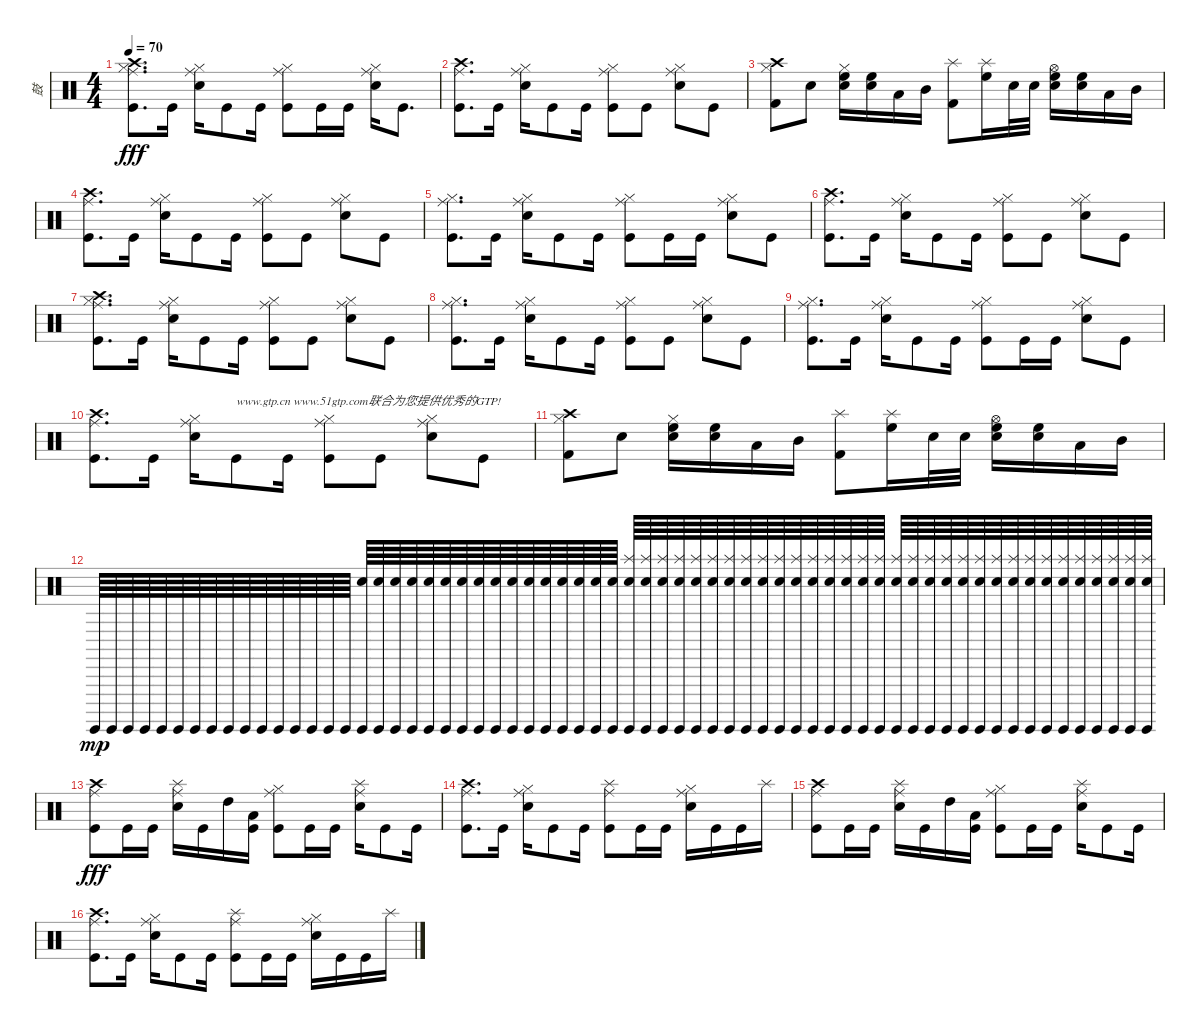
\track ("鼓" "鼓") {instrument percussion}
\staff {score}
\articulation defaults
\ts (4 4)
\tempo 70
\clef neutral
\ks c
("Ride (middle)" "Crash high (hit)" "Hi-Hat (closed)" "Kick (hit)").8{d dy fff} "Kick (hit)".16 ("Ride (middle)" "Hi-Hat (closed)" "Electric Snare (hit)").16 "Kick (hit)".8 "Kick (hit)".16 ("Ride (middle)" "Hi-Hat (closed)" "Kick (hit)").8 "Kick (hit)".16 "Kick (hit)".16 ("Ride (middle)" "Hi-Hat (closed)" "Electric Snare (hit)").16 "Kick (hit)".8{d} |
("Ride (middle)" "Crash high (hit)" "Kick (hit)").8{d} "Kick (hit)".16 ("Ride (middle)" "Hi-Hat (closed)" "Electric Snare (hit)").16 "Kick (hit)".8 "Kick (hit)".16 ("Ride (middle)" "Hi-Hat (closed)" "Kick (hit)").8 "Kick (hit)".8 ("Ride (middle)" "Hi-Hat (closed)" "Electric Snare (hit)").8 "Kick (hit)".8 |
("Crash high (hit)" "Hi-Hat (closed)" "Kick (hit) 2").8 "Snare (hit) 2".8 ("Hi-Hat (closed)" "High Floor Tom (hit)" "Electric Snare (hit)").16 ("High Floor Tom (hit)" "Electric Snare (hit)").16 "Low Tom (hit)".16 "Mid Tom (hit)".16 ("Splash (hit)" "Kick (hit) 2").8 ("Splash (hit)" "High Floor Tom (hit)").16 "Snare (hit) 2".32 "Snare (hit) 2".32 ("Hi-Hat (open)" "High Floor Tom (hit)" "Electric Snare (hit)").16 ("High Floor Tom (hit)" "Electric Snare (hit)").16 "Low Tom (hit)".16 "Mid Tom (hit)".16 |
("Ride (middle)" "Crash high (hit)" "Kick (hit)").8{d} "Kick (hit)".16 ("Ride (middle)" "Hi-Hat (closed)" "Electric Snare (hit)").16 "Kick (hit)".8 "Kick (hit)".16 ("Ride (middle)" "Hi-Hat (closed)" "Kick (hit)").8 "Kick (hit)".8 ("Ride (middle)" "Hi-Hat (closed)" "Electric Snare (hit)").8 "Kick (hit)".8 |
("Ride (middle)" "Hi-Hat (closed)" "Kick (hit)").8{d} "Kick (hit)".16 ("Ride (middle)" "Hi-Hat (closed)" "Electric Snare (hit)").16 "Kick (hit)".8 "Kick (hit)".16 ("Ride (middle)" "Hi-Hat (closed)" "Kick (hit)").8 "Kick (hit)".16 "Kick (hit)".16 ("Ride (middle)" "Hi-Hat (closed)" "Electric Snare (hit)").8 "Kick (hit)".8 |
("Ride (middle)" "Crash high (hit)" "Kick (hit)").8{d} "Kick (hit)".16 ("Ride (middle)" "Hi-Hat (closed)" "Electric Snare (hit)").16 "Kick (hit)".8 "Kick (hit)".16 ("Ride (middle)" "Hi-Hat (closed)" "Kick (hit)").8 "Kick (hit)".8 ("Ride (middle)" "Hi-Hat (closed)" "Electric Snare (hit)").8 "Kick (hit)".8 |
("Ride (middle)" "Crash high (hit)" "Hi-Hat (closed)" "Kick (hit)").8{d} "Kick (hit)".16 ("Ride (middle)" "Hi-Hat (closed)" "Electric Snare (hit)").16 "Kick (hit)".8 "Kick (hit)".16 ("Ride (middle)" "Hi-Hat (closed)" "Kick (hit)").8 "Kick (hit)".8 ("Ride (middle)" "Hi-Hat (closed)" "Electric Snare (hit)").8 "Kick (hit)".8 |
("Ride (middle)" "Hi-Hat (closed)" "Kick (hit)").8{d} "Kick (hit)".16 ("Ride (middle)" "Hi-Hat (closed)" "Electric Snare (hit)").16 "Kick (hit)".8 "Kick (hit)".16 ("Ride (middle)" "Hi-Hat (closed)" "Kick (hit)").8 "Kick (hit)".8 ("Ride (middle)" "Hi-Hat (closed)" "Electric Snare (hit)").8 "Kick (hit)".8 |
("Ride (middle)" "Hi-Hat (closed)" "Kick (hit)").8{d} "Kick (hit)".16 ("Ride (middle)" "Hi-Hat (closed)" "Electric Snare (hit)").16 "Kick (hit)".8 "Kick (hit)".16 ("Ride (middle)" "Hi-Hat (closed)" "Kick (hit)").8 "Kick (hit)".16 "Kick (hit)".16 ("Ride (middle)" "Hi-Hat (closed)" "Electric Snare (hit)").8 "Kick (hit)".8 |
("Ride (middle)" "Crash high (hit)" "Kick (hit)").8{d} "Kick (hit)".16 ("Ride (middle)" "Hi-Hat (closed)" "Electric Snare (hit)").16 "Kick (hit)".8{txt "www.gtp.cn www.51gtp.com联合为您提供优秀的GTP!"} "Kick (hit)".16 ("Ride (middle)" "Hi-Hat (closed)" "Kick (hit)").8 "Kick (hit)".8 ("Ride (middle)" "Hi-Hat (closed)" "Electric Snare (hit)").8 "Kick (hit)".8 |
("Crash high (hit)" "Hi-Hat (closed)" "Kick (hit) 2").8 "Snare (hit) 2".8 ("Hi-Hat (closed)" "High Floor Tom (hit)" "Electric Snare (hit)").16 ("High Floor Tom (hit)" "Electric Snare (hit)").16 "Low Tom (hit)".16 "Mid Tom (hit)".16 ("Splash (hit)" "Kick (hit) 2").8 ("Splash (hit)" "High Floor Tom (hit)").16 "Snare (hit) 2".32 "Snare (hit) 2".32 ("Hi-Hat (open)" "High Floor Tom (hit)" "Electric Snare (hit)").16 ("High Floor Tom (hit)" "Electric Snare (hit)").16 "Low Tom (hit)".16 "Mid Tom (hit)".16 |
"Surdo (hit)".64{dy mp} "Surdo (hit)".64 "Surdo (hit)".64 "Surdo (hit)".64 "Surdo (hit)".64 "Surdo (hit)".64 "Surdo (hit)".64 "Surdo (hit)".64 "Surdo (hit)".64 "Surdo (hit)".64 "Surdo (hit)".64 "Surdo (hit)".64 "Surdo (hit)".64 "Surdo (hit)".64 "Surdo (hit)".64 "Surdo (hit)".64 ("Surdo (hit)" "Electric Snare (hit)").64 ("Surdo (hit)" "Electric Snare (hit)").64 ("Surdo (hit)" "Electric Snare (hit)").64 ("Surdo (hit)" "Electric Snare (hit)").64 ("Surdo (hit)" "Electric Snare (hit)").64 ("Surdo (hit)" "Electric Snare (hit)").64 ("Surdo (hit)" "Electric Snare (hit)").64 ("Surdo (hit)" "Electric Snare (hit)").64 ("Surdo (hit)" "Electric Snare (hit)").64 ("Surdo (hit)" "Electric Snare (hit)").64 ("Surdo (hit)" "Electric Snare (hit)").64 ("Surdo (hit)" "Electric Snare (hit)").64 ("Surdo (hit)" "Electric Snare (hit)").64 ("Surdo (hit)" "Electric Snare (hit)").64 ("Surdo (hit)" "Electric Snare (hit)").64 ("Surdo (hit)" "Electric Snare (hit)").64 ("Surdo (hit)" "Electric Snare (hit)" "Splash (hit)").64 ("Surdo (hit)" "Electric Snare (hit)" "Splash (hit)").64 ("Surdo (hit)" "Electric Snare (hit)" "Splash (hit)").64 ("Surdo (hit)" "Electric Snare (hit)" "Splash (hit)").64 ("Surdo (hit)" "Electric Snare (hit)" "Splash (hit)").64 ("Surdo (hit)" "Electric Snare (hit)" "Splash (hit)").64 ("Surdo (hit)" "Electric Snare (hit)" "Splash (hit)").64 ("Surdo (hit)" "Electric Snare (hit)" "Splash (hit)").64 ("Surdo (hit)" "Electric Snare (hit)" "Splash (hit)").64 ("Surdo (hit)" "Electric Snare (hit)" "Splash (hit)").64 ("Surdo (hit)" "Electric Snare (hit)" "Splash (hit)").64 ("Surdo (hit)" "Electric Snare (hit)" "Splash (hit)").64 ("Surdo (hit)" "Electric Snare (hit)" "Splash (hit)").64 ("Surdo (hit)" "Electric Snare (hit)" "Splash (hit)").64 ("Surdo (hit)" "Electric Snare (hit)" "Splash (hit)").64 ("Surdo (hit)" "Electric Snare (hit)" "Splash (hit)").64 ("Surdo (hit)" "Electric Snare (hit)" "Splash (hit)").64 ("Surdo (hit)" "Electric Snare (hit)" "Splash (hit)").64 ("Surdo (hit)" "Electric Snare (hit)" "Splash (hit)").64 ("Surdo (hit)" "Electric Snare (hit)" "Splash (hit)").64 ("Surdo (hit)" "Electric Snare (hit)" "Splash (hit)").64 ("Surdo (hit)" "Electric Snare (hit)" "Splash (hit)").64 ("Surdo (hit)" "Electric Snare (hit)" "Splash (hit)").64 ("Surdo (hit)" "Electric Snare (hit)" "Splash (hit)").64 ("Surdo (hit)" "Electric Snare (hit)" "Splash (hit)").64 ("Surdo (hit)" "Electric Snare (hit)" "Splash (hit)").64 ("Surdo (hit)" "Electric Snare (hit)" "Splash (hit)").64 ("Surdo (hit)" "Electric Snare (hit)" "Splash (hit)").64 ("Surdo (hit)" "Electric Snare (hit)" "Splash (hit)").64 ("Surdo (hit)" "Electric Snare (hit)" "Splash (hit)").64 ("Surdo (hit)" "Electric Snare (hit)" "Splash (hit)").64 ("Surdo (hit)" "Electric Snare (hit)" "Splash (hit)").64 |
("Ride (middle)" "Crash high (hit)" "Kick (hit)").8{dy fff} "Kick (hit)".16 "Kick (hit)".16 ("Ride (middle)" "Splash (hit)" "Electric Snare (hit)").16 "Kick (hit)".16 "High Tom (hit)".16 ("Low Tom (hit)" "Kick (hit)").16 ("Ride (middle)" "Hi-Hat (closed)" "Kick (hit)").8 "Kick (hit)".16 "Kick (hit)".16 ("Ride (middle)" "Splash (hit)" "Electric Snare (hit)").16 "Kick (hit)".8 "Kick (hit)".16 |
("Ride (middle)" "Crash high (hit)" "Kick (hit)").8{d} "Kick (hit)".16 ("Ride (middle)" "Hi-Hat (closed)" "Electric Snare (hit)").16 "Kick (hit)".8 "Kick (hit)".16 ("Ride (middle)" "Splash (hit)" "Kick (hit)").8 "Kick (hit)".16 "Kick (hit)".16 ("Ride (middle)" "Hi-Hat (closed)" "Electric Snare (hit)").16 "Kick (hit)".16 "Kick (hit)".16 "Splash (hit)".16 |
("Ride (middle)" "Crash high (hit)" "Kick (hit)").8 "Kick (hit)".16 "Kick (hit)".16 ("Ride (middle)" "Splash (hit)" "Electric Snare (hit)").16 "Kick (hit)".16 "High Tom (hit)".16 ("Low Tom (hit)" "Kick (hit)").16 ("Ride (middle)" "Hi-Hat (closed)" "Kick (hit)").8 "Kick (hit)".16 "Kick (hit)".16 ("Ride (middle)" "Splash (hit)" "Electric Snare (hit)").16 "Kick (hit)".8 "Kick (hit)".16 |
("Ride (middle)" "Crash high (hit)" "Kick (hit)").8{d} "Kick (hit)".16 ("Ride (middle)" "Hi-Hat (closed)" "Electric Snare (hit)").16 "Kick (hit)".8 "Kick (hit)".16 ("Ride (middle)" "Splash (hit)" "Kick (hit)").8 "Kick (hit)".16 "Kick (hit)".16 ("Ride (middle)" "Hi-Hat (closed)" "Electric Snare (hit)").16 "Kick (hit)".16 "Kick (hit)".16 "Splash (hit)".16
